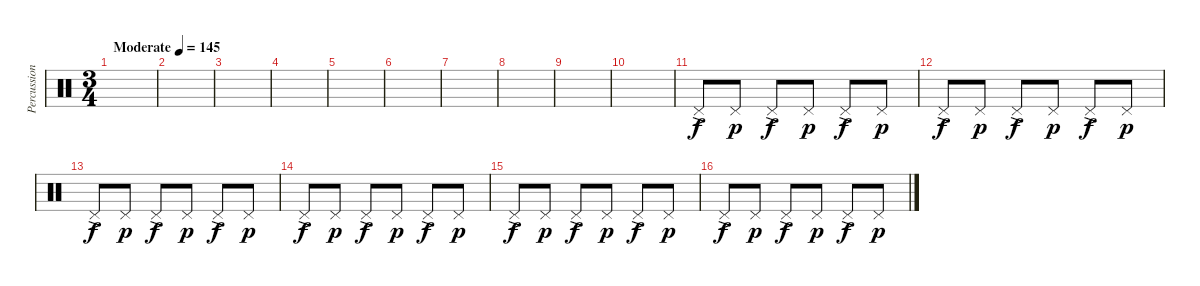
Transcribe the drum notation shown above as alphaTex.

\track ("Percussion" "Percussion") {instrument percussion}
\staff {score}
\articulation defaults
\ts (3 4)
\tempo (145 "Moderate")
\clef neutral
\ks c
|
|
|
|
|
|
|
|
|
|
"Pedal Hi-Hat (hit)"{ac}.8 "Pedal Hi-Hat (hit)".8{dy p} "Pedal Hi-Hat (hit)"{ac}.8{dy f} "Pedal Hi-Hat (hit)".8{dy p} "Pedal Hi-Hat (hit)"{ac}.8{dy f} "Pedal Hi-Hat (hit)".8{dy p} |
"Pedal Hi-Hat (hit)"{ac}.8{dy f} "Pedal Hi-Hat (hit)".8{dy p} "Pedal Hi-Hat (hit)"{ac}.8{dy f} "Pedal Hi-Hat (hit)".8{dy p} "Pedal Hi-Hat (hit)"{ac}.8{dy f} "Pedal Hi-Hat (hit)".8{dy p} |
"Pedal Hi-Hat (hit)"{ac}.8{dy f} "Pedal Hi-Hat (hit)".8{dy p} "Pedal Hi-Hat (hit)"{ac}.8{dy f} "Pedal Hi-Hat (hit)".8{dy p} "Pedal Hi-Hat (hit)"{ac}.8{dy f} "Pedal Hi-Hat (hit)".8{dy p} |
"Pedal Hi-Hat (hit)"{ac}.8{dy f} "Pedal Hi-Hat (hit)".8{dy p} "Pedal Hi-Hat (hit)"{ac}.8{dy f} "Pedal Hi-Hat (hit)".8{dy p} "Pedal Hi-Hat (hit)"{ac}.8{dy f} "Pedal Hi-Hat (hit)".8{dy p} |
"Pedal Hi-Hat (hit)"{ac}.8{dy f} "Pedal Hi-Hat (hit)".8{dy p} "Pedal Hi-Hat (hit)"{ac}.8{dy f} "Pedal Hi-Hat (hit)".8{dy p} "Pedal Hi-Hat (hit)"{ac}.8{dy f} "Pedal Hi-Hat (hit)".8{dy p} |
"Pedal Hi-Hat (hit)"{ac}.8{dy f} "Pedal Hi-Hat (hit)".8{dy p} "Pedal Hi-Hat (hit)"{ac}.8{dy f} "Pedal Hi-Hat (hit)".8{dy p} "Pedal Hi-Hat (hit)"{ac}.8{dy f} "Pedal Hi-Hat (hit)".8{dy p}
